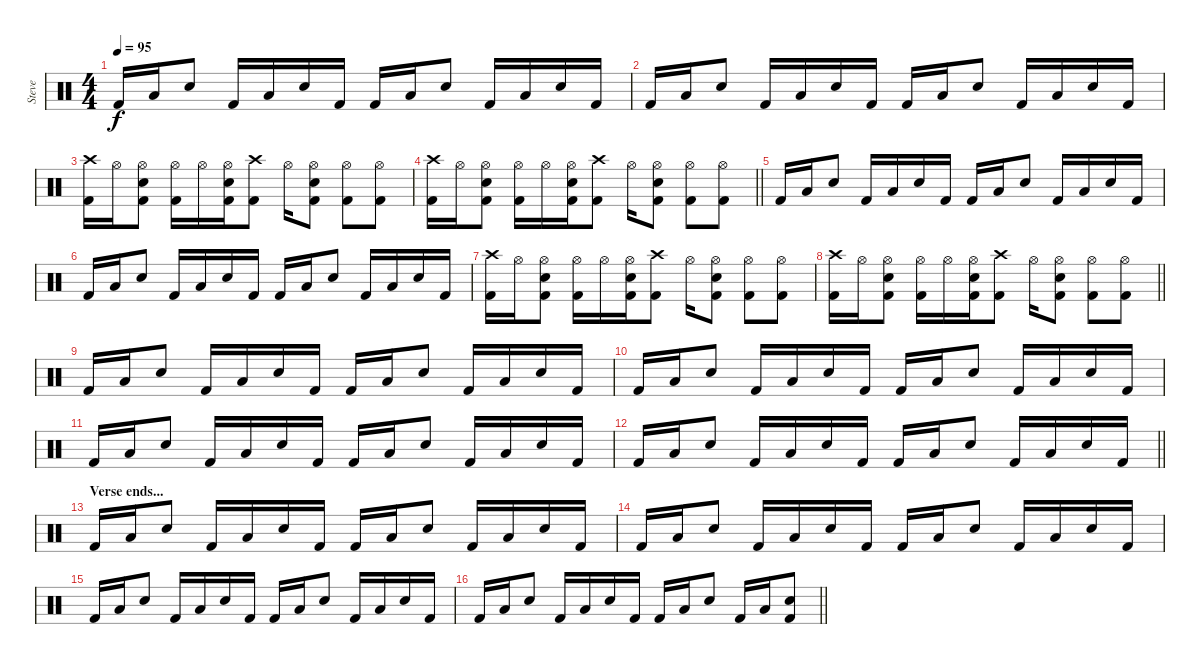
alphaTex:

\track ("Steve" "Steve") {instrument percussion}
\staff {score}
\articulation defaults
\ts (4 4)
\tempo 95
\clef neutral
\ks c "Kick (hit) 2".16{dy f} "Low Floor Tom (hit)".16 "Snare (hit) 2".8 "Kick (hit) 2".16 "Low Floor Tom (hit)".16 "Snare (hit) 2".16 "Kick (hit) 2".16 "Kick (hit) 2".16 "Low Floor Tom (hit)".16 "Snare (hit) 2".8 "Kick (hit) 2".16 "Low Floor Tom (hit)".16 "Snare (hit) 2".16 "Kick (hit) 2".16
|
"Kick (hit) 2".16 "Low Floor Tom (hit)".16 "Snare (hit) 2".8 "Kick (hit) 2".16 "Low Floor Tom (hit)".16 "Snare (hit) 2".16 "Kick (hit) 2".16 "Kick (hit) 2".16 "Low Floor Tom (hit)".16 "Snare (hit) 2".8 "Kick (hit) 2".16 "Low Floor Tom (hit)".16 "Snare (hit) 2".16 "Kick (hit) 2".16 |
("Kick (hit) 2" "Crash high (hit)").16 "Hi-Hat (open)".16 ("Kick (hit) 2" "Snare (hit) 2" "Hi-Hat (open)").8 ("Kick (hit) 2" "Hi-Hat (open)").16 "Hi-Hat (open)".16 ("Kick (hit) 2" "Snare (hit) 2" "Hi-Hat (open)").16 ("Kick (hit) 2" "Crash high (hit)").8 "Hi-Hat (open)".16 ("Kick (hit) 2" "Snare (hit) 2" "Hi-Hat (open)").8 ("Kick (hit) 2" "Hi-Hat (open)").8 ("Kick (hit) 2" "Hi-Hat (open)").8 |
\barLineRight lightlight
("Kick (hit) 2" "Crash high (hit)").16 "Hi-Hat (open)".16 ("Kick (hit) 2" "Snare (hit) 2" "Hi-Hat (open)").8 ("Kick (hit) 2" "Hi-Hat (open)").16 "Hi-Hat (open)".16 ("Kick (hit) 2" "Snare (hit) 2" "Hi-Hat (open)").16 ("Kick (hit) 2" "Crash high (hit)").8 "Hi-Hat (open)".16 ("Kick (hit) 2" "Snare (hit) 2" "Hi-Hat (open)").8 ("Kick (hit) 2" "Hi-Hat (open)").8 ("Kick (hit) 2" "Hi-Hat (open)").8 |
"Kick (hit) 2".16 "Low Floor Tom (hit)".16 "Snare (hit) 2".8 "Kick (hit) 2".16 "Low Floor Tom (hit)".16 "Snare (hit) 2".16 "Kick (hit) 2".16 "Kick (hit) 2".16 "Low Floor Tom (hit)".16 "Snare (hit) 2".8 "Kick (hit) 2".16 "Low Floor Tom (hit)".16 "Snare (hit) 2".16 "Kick (hit) 2".16 |
"Kick (hit) 2".16 "Low Floor Tom (hit)".16 "Snare (hit) 2".8 "Kick (hit) 2".16 "Low Floor Tom (hit)".16 "Snare (hit) 2".16 "Kick (hit) 2".16 "Kick (hit) 2".16 "Low Floor Tom (hit)".16 "Snare (hit) 2".8 "Kick (hit) 2".16 "Low Floor Tom (hit)".16 "Snare (hit) 2".16 "Kick (hit) 2".16 |
("Kick (hit) 2" "Crash high (hit)").16 "Hi-Hat (open)".16 ("Kick (hit) 2" "Snare (hit) 2" "Hi-Hat (open)").8 ("Kick (hit) 2" "Hi-Hat (open)").16 "Hi-Hat (open)".16 ("Kick (hit) 2" "Snare (hit) 2" "Hi-Hat (open)").16 ("Kick (hit) 2" "Crash high (hit)").8 "Hi-Hat (open)".16 ("Kick (hit) 2" "Snare (hit) 2" "Hi-Hat (open)").8 ("Kick (hit) 2" "Hi-Hat (open)").8 ("Kick (hit) 2" "Hi-Hat (open)").8 |
\barLineRight lightlight
("Kick (hit) 2" "Crash high (hit)").16 "Hi-Hat (open)".16 ("Kick (hit) 2" "Snare (hit) 2" "Hi-Hat (open)").8 ("Kick (hit) 2" "Hi-Hat (open)").16 "Hi-Hat (open)".16 ("Kick (hit) 2" "Snare (hit) 2" "Hi-Hat (open)").16 ("Kick (hit) 2" "Crash high (hit)").8 "Hi-Hat (open)".16 ("Kick (hit) 2" "Snare (hit) 2" "Hi-Hat (open)").8 ("Kick (hit) 2" "Hi-Hat (open)").8 ("Kick (hit) 2" "Hi-Hat (open)").8 |
"Kick (hit) 2".16 "Low Floor Tom (hit)".16 "Snare (hit) 2".8 "Kick (hit) 2".16 "Low Floor Tom (hit)".16 "Snare (hit) 2".16 "Kick (hit) 2".16 "Kick (hit) 2".16 "Low Floor Tom (hit)".16 "Snare (hit) 2".8 "Kick (hit) 2".16 "Low Floor Tom (hit)".16 "Snare (hit) 2".16 "Kick (hit) 2".16 |
"Kick (hit) 2".16 "Low Floor Tom (hit)".16 "Snare (hit) 2".8 "Kick (hit) 2".16 "Low Floor Tom (hit)".16 "Snare (hit) 2".16 "Kick (hit) 2".16 "Kick (hit) 2".16 "Low Floor Tom (hit)".16 "Snare (hit) 2".8 "Kick (hit) 2".16 "Low Floor Tom (hit)".16 "Snare (hit) 2".16 "Kick (hit) 2".16 |
"Kick (hit) 2".16 "Low Floor Tom (hit)".16 "Snare (hit) 2".8 "Kick (hit) 2".16 "Low Floor Tom (hit)".16 "Snare (hit) 2".16 "Kick (hit) 2".16 "Kick (hit) 2".16 "Low Floor Tom (hit)".16 "Snare (hit) 2".8 "Kick (hit) 2".16 "Low Floor Tom (hit)".16 "Snare (hit) 2".16 "Kick (hit) 2".16 |
\barLineRight lightlight "Kick (hit) 2".16 "Low Floor Tom (hit)".16 "Snare (hit) 2".8 "Kick (hit) 2".16 "Low Floor Tom (hit)".16 "Snare (hit) 2".16 "Kick (hit) 2".16 "Kick (hit) 2".16 "Low Floor Tom (hit)".16 "Snare (hit) 2".8 "Kick (hit) 2".16 "Low Floor Tom (hit)".16 "Snare (hit) 2".16 "Kick (hit) 2".16
|
\section ("" "Verse ends...")
"Kick (hit) 2".16 "Low Floor Tom (hit)".16 "Snare (hit) 2".8 "Kick (hit) 2".16 "Low Floor Tom (hit)".16 "Snare (hit) 2".16 "Kick (hit) 2".16 "Kick (hit) 2".16 "Low Floor Tom (hit)".16 "Snare (hit) 2".8 "Kick (hit) 2".16 "Low Floor Tom (hit)".16 "Snare (hit) 2".16 "Kick (hit) 2".16 |
"Kick (hit) 2".16 "Low Floor Tom (hit)".16 "Snare (hit) 2".8 "Kick (hit) 2".16 "Low Floor Tom (hit)".16 "Snare (hit) 2".16 "Kick (hit) 2".16 "Kick (hit) 2".16 "Low Floor Tom (hit)".16 "Snare (hit) 2".8 "Kick (hit) 2".16 "Low Floor Tom (hit)".16 "Snare (hit) 2".16 "Kick (hit) 2".16 |
"Kick (hit) 2".16 "Low Floor Tom (hit)".16 "Snare (hit) 2".8 "Kick (hit) 2".16 "Low Floor Tom (hit)".16 "Snare (hit) 2".16 "Kick (hit) 2".16 "Kick (hit) 2".16 "Low Floor Tom (hit)".16 "Snare (hit) 2".8 "Kick (hit) 2".16 "Low Floor Tom (hit)".16 "Snare (hit) 2".16 "Kick (hit) 2".16 |
\barLineRight lightlight "Kick (hit) 2".16 "Low Floor Tom (hit)".16 "Snare (hit) 2".8 "Kick (hit) 2".16 "Low Floor Tom (hit)".16 "Snare (hit) 2".16 "Kick (hit) 2".16 "Kick (hit) 2".16 "Low Floor Tom (hit)".16 "Snare (hit) 2".8 "Kick (hit) 2".16 "Low Floor Tom (hit)".16
("Kick (hit) 2" "Snare (hit) 2").8
